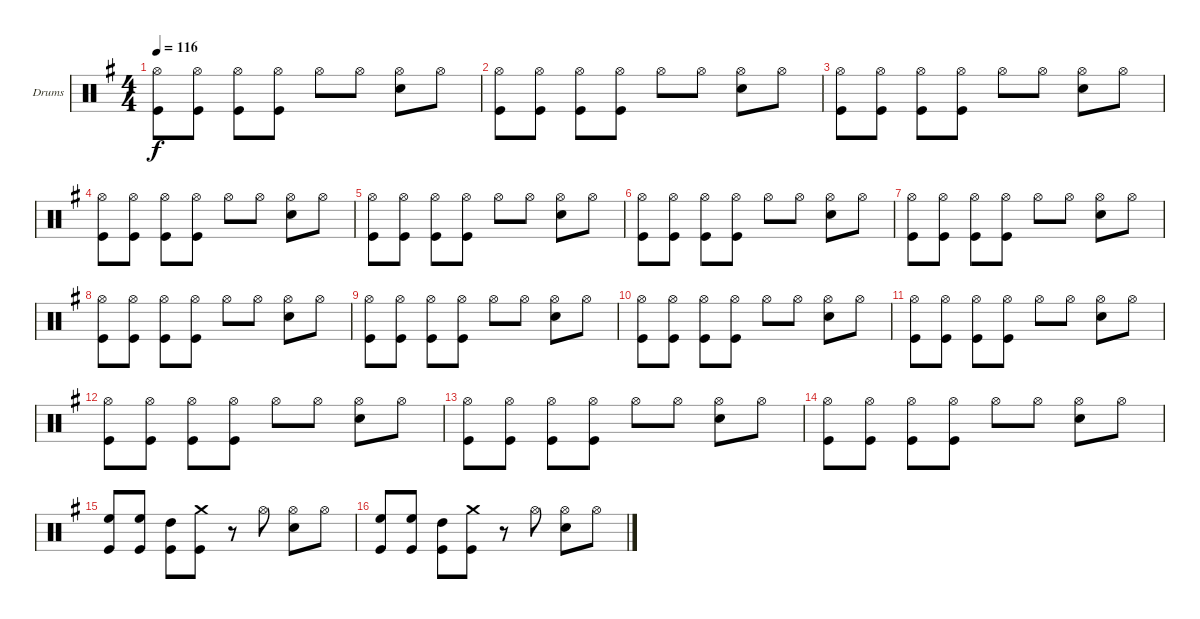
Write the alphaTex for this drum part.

\defaultSystemsLayout 4
\bracketExtendMode groupsimilarinstruments
\firstSystemTrackNameOrientation horizontal
\otherSystemsTrackNameOrientation horizontal
\track ("Drumkit" "Drums") {instrument percussion}
\staff {score}
\articulation defaults
\ts (4 4)
\tempo 116
\clef neutral
\scale
1.02648
\ks g
("Hi-Hat (open)" "Kick (hit)").8{dy f} ("Hi-Hat (open)" "Kick (hit)").8 ("Hi-Hat (open)" "Kick (hit)").8 ("Hi-Hat (open)" "Kick (hit)").8 "Hi-Hat (open)".8 "Hi-Hat (open)".8 ("Hi-Hat (open)" "Snare (hit) 2").8 "Hi-Hat (open)".8 |
\scale
0.973518 ("Hi-Hat (open)" "Kick (hit)").8 ("Hi-Hat (open)" "Kick (hit)").8 ("Hi-Hat (open)" "Kick (hit)").8 ("Hi-Hat (open)" "Kick (hit)").8 "Hi-Hat (open)".8 "Hi-Hat (open)".8 ("Hi-Hat (open)" "Snare (hit) 2").8 "Hi-Hat (open)".8 |
\scale
1.02648 ("Hi-Hat (open)" "Kick (hit)").8 ("Hi-Hat (open)" "Kick (hit)").8 ("Hi-Hat (open)" "Kick (hit)").8 ("Hi-Hat (open)" "Kick (hit)").8 "Hi-Hat (open)".8 "Hi-Hat (open)".8 ("Hi-Hat (open)" "Snare (hit) 2").8 "Hi-Hat (open)".8 |
\scale
0.973518 ("Hi-Hat (open)" "Kick (hit)").8 ("Hi-Hat (open)" "Kick (hit)").8 ("Hi-Hat (open)" "Kick (hit)").8 ("Hi-Hat (open)" "Kick (hit)").8 "Hi-Hat (open)".8 "Hi-Hat (open)".8 ("Hi-Hat (open)" "Snare (hit) 2").8 "Hi-Hat (open)".8 |
\scale
1.02648 ("Hi-Hat (open)" "Kick (hit)").8 ("Hi-Hat (open)" "Kick (hit)").8 ("Hi-Hat (open)" "Kick (hit)").8 ("Hi-Hat (open)" "Kick (hit)").8 "Hi-Hat (open)".8 "Hi-Hat (open)".8 ("Hi-Hat (open)" "Snare (hit) 2").8 "Hi-Hat (open)".8 |
\scale
0.973518 ("Hi-Hat (open)" "Kick (hit)").8 ("Hi-Hat (open)" "Kick (hit)").8 ("Hi-Hat (open)" "Kick (hit)").8 ("Hi-Hat (open)" "Kick (hit)").8 "Hi-Hat (open)".8 "Hi-Hat (open)".8 ("Hi-Hat (open)" "Snare (hit) 2").8 "Hi-Hat (open)".8 |
\scale
1.02648 ("Hi-Hat (open)" "Kick (hit)").8 ("Hi-Hat (open)" "Kick (hit)").8 ("Hi-Hat (open)" "Kick (hit)").8 ("Hi-Hat (open)" "Kick (hit)").8 "Hi-Hat (open)".8 "Hi-Hat (open)".8 ("Hi-Hat (open)" "Snare (hit) 2").8 "Hi-Hat (open)".8 |
\scale
0.973518 ("Hi-Hat (open)" "Kick (hit)").8 ("Hi-Hat (open)" "Kick (hit)").8 ("Hi-Hat (open)" "Kick (hit)").8 ("Hi-Hat (open)" "Kick (hit)").8 "Hi-Hat (open)".8 "Hi-Hat (open)".8 ("Hi-Hat (open)" "Snare (hit) 2").8 "Hi-Hat (open)".8 |
\scale
1.02648 ("Hi-Hat (open)" "Kick (hit)").8 ("Hi-Hat (open)" "Kick (hit)").8 ("Hi-Hat (open)" "Kick (hit)").8 ("Hi-Hat (open)" "Kick (hit)").8 "Hi-Hat (open)".8 "Hi-Hat (open)".8 ("Hi-Hat (open)" "Snare (hit) 2").8 "Hi-Hat (open)".8 |
\scale
0.973518 ("Hi-Hat (open)" "Kick (hit)").8 ("Hi-Hat (open)" "Kick (hit)").8 ("Hi-Hat (open)" "Kick (hit)").8 ("Hi-Hat (open)" "Kick (hit)").8 "Hi-Hat (open)".8 "Hi-Hat (open)".8 ("Hi-Hat (open)" "Snare (hit) 2").8 "Hi-Hat (open)".8 |
\scale
1.02648 ("Hi-Hat (open)" "Kick (hit)").8 ("Hi-Hat (open)" "Kick (hit)").8 ("Hi-Hat (open)" "Kick (hit)").8 ("Hi-Hat (open)" "Kick (hit)").8 "Hi-Hat (open)".8 "Hi-Hat (open)".8 ("Hi-Hat (open)" "Snare (hit) 2").8 "Hi-Hat (open)".8 |
\scale
0.973518 ("Hi-Hat (open)" "Kick (hit)").8 ("Hi-Hat (open)" "Kick (hit)").8 ("Hi-Hat (open)" "Kick (hit)").8 ("Hi-Hat (open)" "Kick (hit)").8 "Hi-Hat (open)".8 "Hi-Hat (open)".8 ("Hi-Hat (open)" "Snare (hit) 2").8 "Hi-Hat (open)".8 |
\scale
1.02648 ("Hi-Hat (open)" "Kick (hit)").8 ("Hi-Hat (open)" "Kick (hit)").8 ("Hi-Hat (open)" "Kick (hit)").8 ("Hi-Hat (open)" "Kick (hit)").8 "Hi-Hat (open)".8 "Hi-Hat (open)".8 ("Hi-Hat (open)" "Snare (hit) 2").8 "Hi-Hat (open)".8 |
\scale
0.973518 ("Hi-Hat (open)" "Kick (hit)").8 ("Hi-Hat (open)" "Kick (hit)").8 ("Hi-Hat (open)" "Kick (hit)").8 ("Hi-Hat (open)" "Kick (hit)").8 "Hi-Hat (open)".8 "Hi-Hat (open)".8 ("Hi-Hat (open)" "Snare (hit) 2").8 "Hi-Hat (open)".8 |
\scale
1.02648 ("High Floor Tom (hit)" "Kick (hit)").8 ("High Floor Tom (hit)" "Kick (hit)").8 ("High Tom (hit)" "Kick (hit)").8 ("Crash medium (hit)" "Kick (hit)").8 r.8 "Hi-Hat (open)".8 ("Hi-Hat (open)" "Snare (hit) 2").8 "Hi-Hat (open)".8 |
\scale
0.973518 ("High Floor Tom (hit)" "Kick (hit)").8 ("High Floor Tom (hit)" "Kick (hit)").8 ("High Tom (hit)" "Kick (hit)").8 ("Crash medium (hit)" "Kick (hit)").8 r.8 "Hi-Hat (open)".8 ("Hi-Hat (open)" "Snare (hit) 2").8 "Hi-Hat (open)".8
